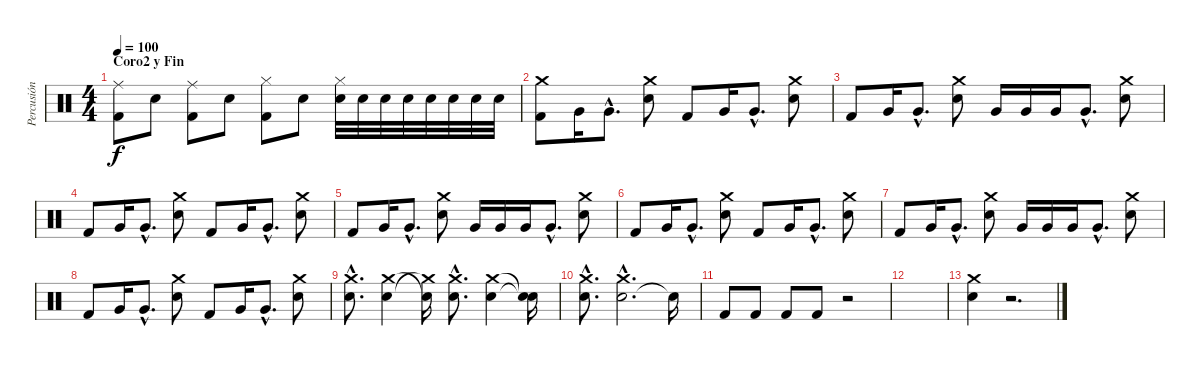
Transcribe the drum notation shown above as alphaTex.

\track ("Percusión" "Percusión") {instrument percussion}
\staff {score}
\articulation defaults
\ts (4 4)
\section ("" "Coro2 y Fin")
\tempo 100
\clef neutral
\ks c
("Ride (middle)" "Kick (hit) 2").8{dy f} "Snare (hit) 2".8 ("Ride (middle)" "Kick (hit) 2").8 "Snare (hit) 2".8 ("Hi-Hat (closed)" "Kick (hit) 2").8 "Snare (hit) 2".8 ("Snare (hit) 2" "Hi-Hat (closed)").32 "Snare (hit) 2".32 "Snare (hit) 2".32 "Snare (hit) 2".32 "Snare (hit) 2".32 "Snare (hit) 2".32 "Snare (hit) 2".32 "Snare (hit) 2".32 |
("Crash medium (hit)" "Kick (hit) 2").8 "Very Low Tom (hit)".16 "Very Low Tom (hit)"{hac}.8{d} ("Crash medium (hit)" "Snare (hit) 2").8 "Kick (hit) 2".8 "Very Low Tom (hit)".16 "Very Low Tom (hit)"{hac}.8{d} ("Crash medium (hit)" "Snare (hit) 2").8 |
"Kick (hit) 2".8 "Very Low Tom (hit)".16 "Very Low Tom (hit)"{hac}.8{d} ("Crash medium (hit)" "Snare (hit) 2").8 "Very Low Tom (hit)".16 "Very Low Tom (hit)".16 "Very Low Tom (hit)".16 "Very Low Tom (hit)"{hac}.8{d} ("Crash medium (hit)" "Snare (hit) 2").8 |
"Kick (hit) 2".8 "Very Low Tom (hit)".16 "Very Low Tom (hit)"{hac}.8{d} ("Crash medium (hit)" "Snare (hit) 2").8 "Kick (hit) 2".8 "Very Low Tom (hit)".16 "Very Low Tom (hit)"{hac}.8{d} ("Crash medium (hit)" "Snare (hit) 2").8 |
"Kick (hit) 2".8 "Very Low Tom (hit)".16 "Very Low Tom (hit)"{hac}.8{d} ("Crash medium (hit)" "Snare (hit) 2").8 "Very Low Tom (hit)".16 "Very Low Tom (hit)".16 "Very Low Tom (hit)".16 "Very Low Tom (hit)"{hac}.8{d} ("Crash medium (hit)" "Snare (hit) 2").8 |
"Kick (hit) 2".8 "Very Low Tom (hit)".16 "Very Low Tom (hit)"{hac}.8{d} ("Crash medium (hit)" "Snare (hit) 2").8 "Kick (hit) 2".8 "Very Low Tom (hit)".16 "Very Low Tom (hit)"{hac}.8{d} ("Crash medium (hit)" "Snare (hit) 2").8 |
"Kick (hit) 2".8 "Very Low Tom (hit)".16 "Very Low Tom (hit)"{hac}.8{d} ("Crash medium (hit)" "Snare (hit) 2").8 "Very Low Tom (hit)".16 "Very Low Tom (hit)".16 "Very Low Tom (hit)".16 "Very Low Tom (hit)"{hac}.8{d} ("Crash medium (hit)" "Snare (hit) 2").8 |
"Kick (hit) 2".8 "Very Low Tom (hit)".16 "Very Low Tom (hit)"{hac}.8{d} ("Crash medium (hit)" "Snare (hit) 2").8 "Kick (hit) 2".8 "Very Low Tom (hit)".16 "Very Low Tom (hit)"{hac}.8{d} ("Crash medium (hit)" "Snare (hit) 2").8 |
("Crash medium (hit)"{hac} "Snare (hit) 2"{hac}).8{d} ("Crash medium (hit)" "Snare (hit) 2").4 ("Snare (hit) 2"{t} "Crash medium (hit)"{t}).16 ("Snare (hit) 2"{hac} "Crash medium (hit)"{hac}).8{d} ("Snare (hit) 2" "Crash medium (hit)").4 ("Snare (hit)"{t} "Snare (hit)"{t}).16 |
("Snare (hit) 2"{hac} "Crash medium (hit)"{hac}).8{d} ("Snare (hit) 2"{hac} "Crash medium (hit)"{hac}).2{d} "Snare (hit)"{t}.16 |
"Kick (hit) 2".8 "Kick (hit) 2".8 "Kick (hit) 2".8 "Kick (hit) 2".8 r.2 |
|
("Snare (hit) 2" "Crash medium (hit)").4 r.2{d}
